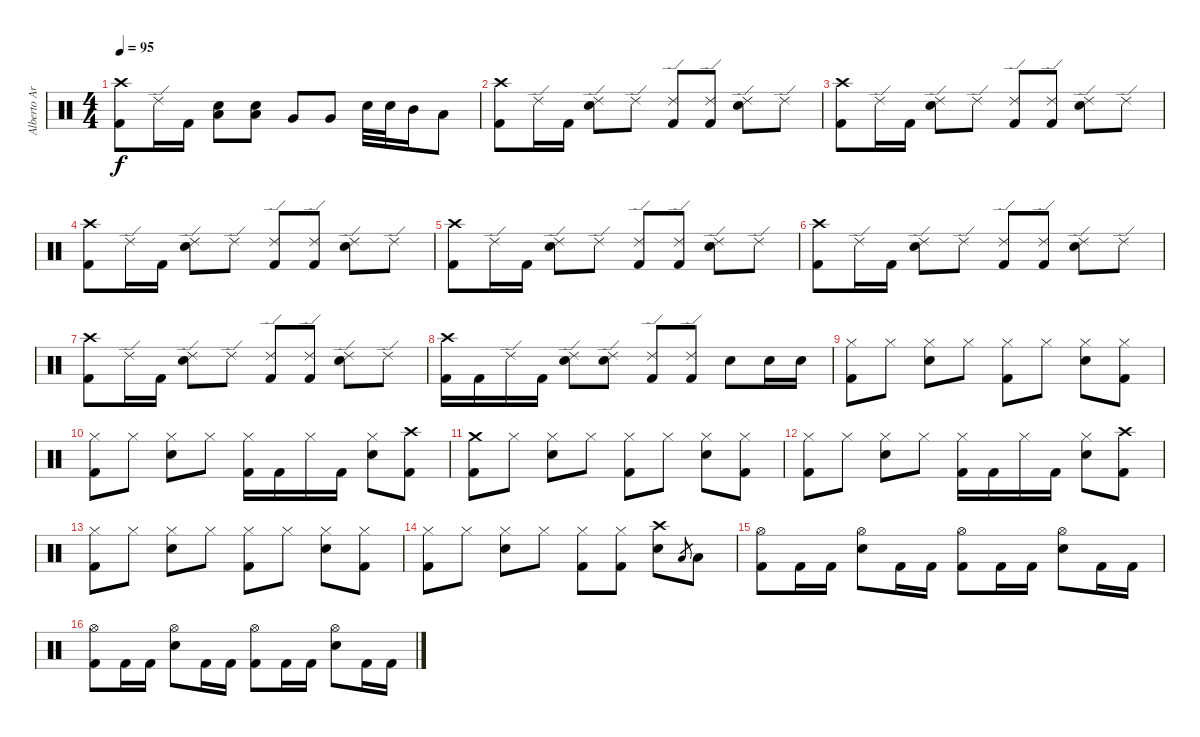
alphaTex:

\track ("Alberto Ardines (Batería)" "Alberto Ar") {instrument percussion}
\staff {score}
\articulation defaults
\ts (4 4)
\tempo 95
\clef neutral
\ks c
("Crash high (hit)" "Kick (hit) 2").8{dy f} "Ride (edge) 2".16 "Kick (hit) 2".16 ("Low Tom (hit)" "Electric Snare (hit)").8 ("Low Tom (hit)" "Electric Snare (hit)").8 "Very Low Tom (hit)".8 "Very Low Tom (hit)".8 "Electric Snare (hit)".32 "Electric Snare (hit)".32 "Mid Tom (hit)".16 "Low Tom (hit)".8 |
("Crash high (hit)" "Kick (hit) 2").8 "Ride (edge) 2".16 "Kick (hit) 2".16 ("Ride (edge) 2" "Electric Snare (hit)").8 "Ride (edge) 2".8 ("Ride (edge) 2" "Kick (hit) 2").8 ("Ride (edge) 2" "Kick (hit) 2").8 ("Ride (edge) 2" "Electric Snare (hit)").8 "Ride (edge) 2".8 |
("Crash high (hit)" "Kick (hit) 2").8 "Ride (edge) 2".16 "Kick (hit) 2".16 ("Ride (edge) 2" "Electric Snare (hit)").8 "Ride (edge) 2".8 ("Ride (edge) 2" "Kick (hit) 2").8 ("Ride (edge) 2" "Kick (hit) 2").8 ("Ride (edge) 2" "Electric Snare (hit)").8 "Ride (edge) 2".8 |
("Crash high (hit)" "Kick (hit) 2").8 "Ride (edge) 2".16 "Kick (hit) 2".16 ("Ride (edge) 2" "Electric Snare (hit)").8 "Ride (edge) 2".8 ("Ride (edge) 2" "Kick (hit) 2").8 ("Ride (edge) 2" "Kick (hit) 2").8 ("Ride (edge) 2" "Electric Snare (hit)").8 "Ride (edge) 2".8 |
("Crash high (hit)" "Kick (hit) 2").8 "Ride (edge) 2".16 "Kick (hit) 2".16 ("Ride (edge) 2" "Electric Snare (hit)").8 "Ride (edge) 2".8 ("Ride (edge) 2" "Kick (hit) 2").8 ("Ride (edge) 2" "Kick (hit) 2").8 ("Ride (edge) 2" "Electric Snare (hit)").8 "Ride (edge) 2".8 |
("Crash high (hit)" "Kick (hit) 2").8 "Ride (edge) 2".16 "Kick (hit) 2".16 ("Ride (edge) 2" "Electric Snare (hit)").8 "Ride (edge) 2".8 ("Ride (edge) 2" "Kick (hit) 2").8 ("Ride (edge) 2" "Kick (hit) 2").8 ("Ride (edge) 2" "Electric Snare (hit)").8 "Ride (edge) 2".8 |
("Crash high (hit)" "Kick (hit) 2").8 "Ride (edge) 2".16 "Kick (hit) 2".16 ("Ride (edge) 2" "Electric Snare (hit)").8 "Ride (edge) 2".8 ("Ride (edge) 2" "Kick (hit) 2").8 ("Ride (edge) 2" "Kick (hit) 2").8 ("Ride (edge) 2" "Electric Snare (hit)").8 "Ride (edge) 2".8 |
("Crash high (hit)" "Kick (hit) 2").16 "Kick (hit) 2".16 "Ride (edge) 2".16 "Kick (hit) 2".16 ("Ride (edge) 2" "Electric Snare (hit)").8 ("Ride (edge) 2" "Electric Snare (hit)").8 ("Ride (edge) 2" "Kick (hit) 2").8 ("Ride (edge) 2" "Kick (hit) 2").8 "Electric Snare (hit)".8 "Electric Snare (hit)".16 "Electric Snare (hit)".16 |
("Hi-Hat (closed)" "Kick (hit) 2").8 "Hi-Hat (closed)".8 ("Hi-Hat (closed)" "Electric Snare (hit)").8 "Hi-Hat (closed)".8 ("Hi-Hat (closed)" "Kick (hit) 2").8 "Hi-Hat (closed)".8 ("Hi-Hat (closed)" "Electric Snare (hit)").8 ("Hi-Hat (closed)" "Kick (hit) 2").8 |
("Hi-Hat (closed)" "Kick (hit) 2").8 "Hi-Hat (closed)".8 ("Hi-Hat (closed)" "Electric Snare (hit)").8 "Hi-Hat (closed)".8 ("Hi-Hat (closed)" "Kick (hit) 2").16 "Kick (hit) 2".16 "Hi-Hat (closed)".16 "Kick (hit) 2".16 ("Hi-Hat (closed)" "Electric Snare (hit)").8 ("Crash high (hit)" "Kick (hit) 2").8 |
("Crash medium (hit)" "Kick (hit) 2").8 "Hi-Hat (closed)".8 ("Hi-Hat (closed)" "Electric Snare (hit)").8 "Hi-Hat (closed)".8 ("Hi-Hat (closed)" "Kick (hit) 2").8 "Hi-Hat (closed)".8 ("Hi-Hat (closed)" "Electric Snare (hit)").8 ("Hi-Hat (closed)" "Kick (hit) 2").8 |
("Hi-Hat (closed)" "Kick (hit) 2").8 "Hi-Hat (closed)".8 ("Hi-Hat (closed)" "Electric Snare (hit)").8 "Hi-Hat (closed)".8 ("Hi-Hat (closed)" "Kick (hit) 2").16 "Kick (hit) 2".16 "Hi-Hat (closed)".16 "Kick (hit) 2".16 ("Hi-Hat (closed)" "Electric Snare (hit)").8 ("Crash high (hit)" "Kick (hit) 2").8 |
("Hi-Hat (closed)" "Kick (hit) 2").8 "Hi-Hat (closed)".8 ("Hi-Hat (closed)" "Electric Snare (hit)").8 "Hi-Hat (closed)".8 ("Hi-Hat (closed)" "Kick (hit) 2").8 "Hi-Hat (closed)".8 ("Hi-Hat (closed)" "Electric Snare (hit)").8 ("Hi-Hat (closed)" "Kick (hit) 2").8 |
("Hi-Hat (closed)" "Kick (hit) 2").8 "Hi-Hat (closed)".8 ("Hi-Hat (closed)" "Electric Snare (hit)").8 "Hi-Hat (closed)".8 ("Hi-Hat (closed)" "Kick (hit) 2").8 ("Hi-Hat (closed)" "Kick (hit) 2").8 ("Crash high (hit)" "Electric Snare (hit)").8 "Low Tom (hit)".8{gr} "Low Tom (hit)".8 |
("Hi-Hat (open)" "Kick (hit) 2").8 "Kick (hit) 2".16 "Kick (hit) 2".16 ("Hi-Hat (open)" "Electric Snare (hit)").8 "Kick (hit) 2".16 "Kick (hit) 2".16 ("Hi-Hat (open)" "Kick (hit) 2").8 "Kick (hit) 2".16 "Kick (hit) 2".16 ("Hi-Hat (open)" "Electric Snare (hit)").8 "Kick (hit) 2".16 "Kick (hit) 2".16 |
("Hi-Hat (open)" "Kick (hit) 2").8 "Kick (hit) 2".16 "Kick (hit) 2".16 ("Hi-Hat (open)" "Electric Snare (hit)").8 "Kick (hit) 2".16 "Kick (hit) 2".16 ("Hi-Hat (open)" "Kick (hit) 2").8 "Kick (hit) 2".16 "Kick (hit) 2".16 ("Hi-Hat (open)" "Electric Snare (hit)").8 "Kick (hit) 2".16 "Kick (hit) 2".16
